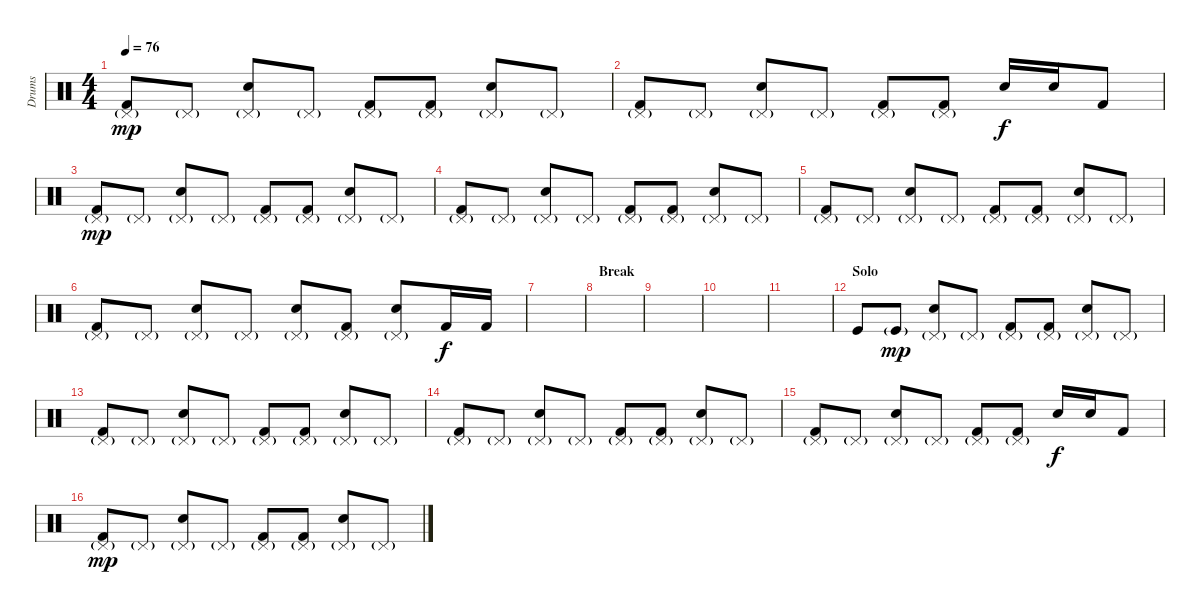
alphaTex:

\track ("Drums" "Drums") {instrument percussion}
\staff {score}
\articulation defaults
\ts (4 4)
\tempo 76
\clef neutral
\ks c
("Pedal Hi-Hat (hit)"{g} "Kick (hit) 2").8{dy mp} "Pedal Hi-Hat (hit)"{g}.8 ("Pedal Hi-Hat (hit)"{g} "Snare (hit) 2").8 "Pedal Hi-Hat (hit)"{g}.8 ("Pedal Hi-Hat (hit)"{g} "Kick (hit) 2").8 ("Pedal Hi-Hat (hit)"{g} "Kick (hit) 2").8 ("Pedal Hi-Hat (hit)"{g} "Snare (hit) 2").8 "Pedal Hi-Hat (hit)"{g}.8 |
("Pedal Hi-Hat (hit)"{g} "Kick (hit) 2").8 "Pedal Hi-Hat (hit)"{g}.8 ("Pedal Hi-Hat (hit)"{g} "Snare (hit) 2").8 "Pedal Hi-Hat (hit)"{g}.8 ("Pedal Hi-Hat (hit)"{g} "Kick (hit) 2").8 ("Pedal Hi-Hat (hit)"{g} "Kick (hit) 2").8 "Snare (hit) 2".16{dy f} "Snare (hit) 2".16 "Kick (hit) 2".8 |
("Pedal Hi-Hat (hit)"{g} "Kick (hit) 2").8{dy mp} "Pedal Hi-Hat (hit)"{g}.8 ("Pedal Hi-Hat (hit)"{g} "Snare (hit) 2").8 "Pedal Hi-Hat (hit)"{g}.8 ("Pedal Hi-Hat (hit)"{g} "Kick (hit) 2").8 ("Pedal Hi-Hat (hit)"{g} "Kick (hit) 2").8 ("Pedal Hi-Hat (hit)"{g} "Snare (hit) 2").8 "Pedal Hi-Hat (hit)"{g}.8 |
("Pedal Hi-Hat (hit)"{g} "Kick (hit) 2").8 "Pedal Hi-Hat (hit)"{g}.8 ("Pedal Hi-Hat (hit)"{g} "Snare (hit) 2").8 "Pedal Hi-Hat (hit)"{g}.8 ("Pedal Hi-Hat (hit)"{g} "Kick (hit) 2").8 ("Pedal Hi-Hat (hit)"{g} "Kick (hit) 2").8 ("Pedal Hi-Hat (hit)"{g} "Snare (hit) 2").8 "Pedal Hi-Hat (hit)"{g}.8 |
("Pedal Hi-Hat (hit)"{g} "Kick (hit) 2").8 "Pedal Hi-Hat (hit)"{g}.8 ("Pedal Hi-Hat (hit)"{g} "Snare (hit) 2").8 "Pedal Hi-Hat (hit)"{g}.8 ("Pedal Hi-Hat (hit)"{g} "Kick (hit) 2").8 ("Pedal Hi-Hat (hit)"{g} "Kick (hit) 2").8 ("Pedal Hi-Hat (hit)"{g} "Snare (hit) 2").8 "Pedal Hi-Hat (hit)"{g}.8 |
("Pedal Hi-Hat (hit)"{g} "Kick (hit) 2").8 "Pedal Hi-Hat (hit)"{g}.8 ("Pedal Hi-Hat (hit)"{g} "Snare (hit) 2").8 "Pedal Hi-Hat (hit)"{g}.8 ("Pedal Hi-Hat (hit)"{g} "Snare (hit) 2").8 ("Pedal Hi-Hat (hit)"{g} "Kick (hit) 2").8 ("Pedal Hi-Hat (hit)"{g} "Snare (hit) 2").8 "Kick (hit) 2".16{dy f} "Kick (hit) 2".16 |
|
\section ("" "Break")
|
|
|
|
\section ("" "Solo")
"Kick (hit)".8 "Kick (hit)"{g}.8{dy mp} ("Pedal Hi-Hat (hit)"{g} "Snare (hit) 2").8 "Pedal Hi-Hat (hit)"{g}.8 ("Pedal Hi-Hat (hit)"{g} "Kick (hit) 2").8 ("Pedal Hi-Hat (hit)"{g} "Kick (hit) 2").8 ("Pedal Hi-Hat (hit)"{g} "Snare (hit) 2").8 "Pedal Hi-Hat (hit)"{g}.8 |
("Pedal Hi-Hat (hit)"{g} "Kick (hit) 2").8 "Pedal Hi-Hat (hit)"{g}.8 ("Pedal Hi-Hat (hit)"{g} "Snare (hit) 2").8 "Pedal Hi-Hat (hit)"{g}.8 ("Pedal Hi-Hat (hit)"{g} "Kick (hit) 2").8 ("Pedal Hi-Hat (hit)"{g} "Kick (hit) 2").8 ("Pedal Hi-Hat (hit)"{g} "Snare (hit) 2").8 "Pedal Hi-Hat (hit)"{g}.8 |
("Pedal Hi-Hat (hit)"{g} "Kick (hit) 2").8 "Pedal Hi-Hat (hit)"{g}.8 ("Pedal Hi-Hat (hit)"{g} "Snare (hit) 2").8 "Pedal Hi-Hat (hit)"{g}.8 ("Pedal Hi-Hat (hit)"{g} "Kick (hit) 2").8 ("Pedal Hi-Hat (hit)"{g} "Kick (hit) 2").8 ("Pedal Hi-Hat (hit)"{g} "Snare (hit) 2").8 "Pedal Hi-Hat (hit)"{g}.8 |
("Pedal Hi-Hat (hit)"{g} "Kick (hit) 2").8 "Pedal Hi-Hat (hit)"{g}.8 ("Pedal Hi-Hat (hit)"{g} "Snare (hit) 2").8 "Pedal Hi-Hat (hit)"{g}.8 ("Pedal Hi-Hat (hit)"{g} "Kick (hit) 2").8 ("Pedal Hi-Hat (hit)"{g} "Kick (hit) 2").8 "Snare (hit) 2".16{dy f} "Snare (hit) 2".16 "Kick (hit) 2".8 |
("Pedal Hi-Hat (hit)"{g} "Kick (hit) 2").8{dy mp} "Pedal Hi-Hat (hit)"{g}.8 ("Pedal Hi-Hat (hit)"{g} "Snare (hit) 2").8 "Pedal Hi-Hat (hit)"{g}.8 ("Pedal Hi-Hat (hit)"{g} "Kick (hit) 2").8 ("Pedal Hi-Hat (hit)"{g} "Kick (hit) 2").8 ("Pedal Hi-Hat (hit)"{g} "Snare (hit) 2").8 "Pedal Hi-Hat (hit)"{g}.8
